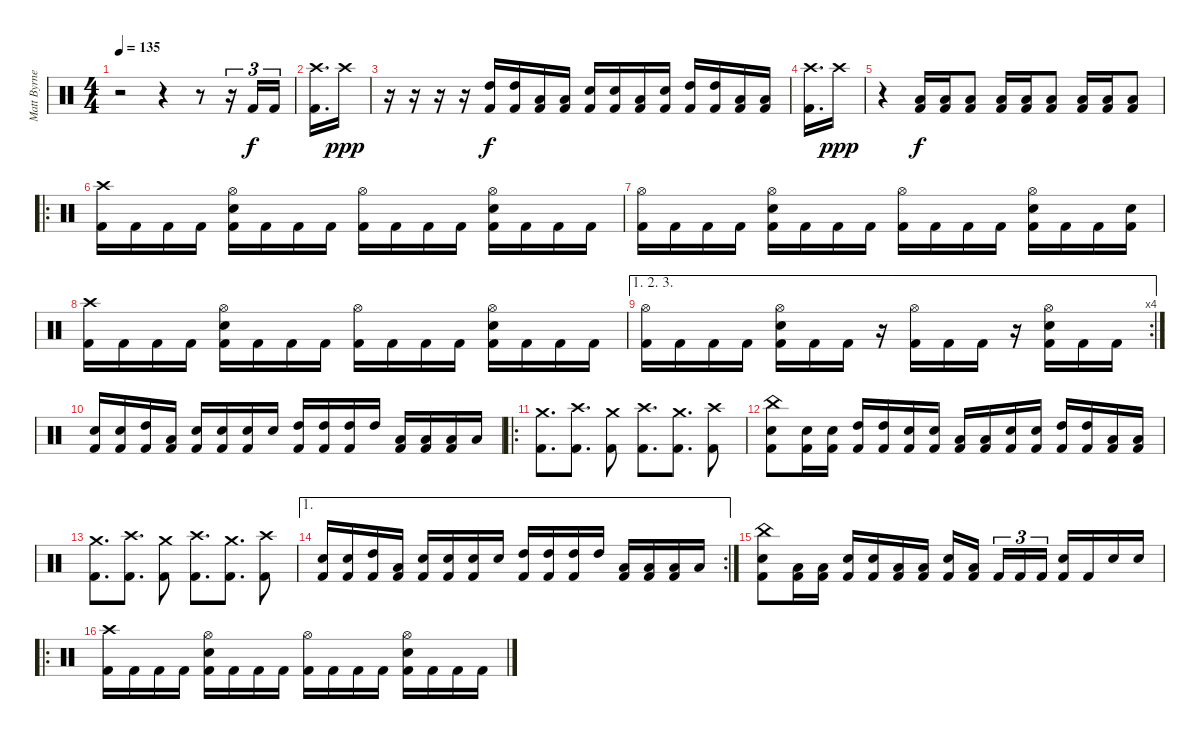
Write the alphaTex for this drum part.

\track ("Matt Byrne" "Matt Byrne") {instrument percussion}
\staff {score}
\articulation defaults
\ts (4 4)
\tempo 135
\clef neutral
\ks c
r.2{dy f} r.4 r.8 r.16{tu (3 2)} "Kick (hit) 2".16{tu (3 2)} "Kick (hit) 2".16{tu (3 2)} |
("Crash high (hit)" "Kick (hit) 2").16{d} "Crash high (hit)".16{dy ppp} |
r.16 r.16 r.16 r.16 ("High Tom (hit)" "Kick (hit) 2").16{dy f} ("High Tom (hit)" "Kick (hit) 2").16 ("Low Tom (hit)" "Kick (hit) 2").16 ("Low Tom (hit)" "Kick (hit) 2").16 ("Electric Snare (hit)" "Kick (hit) 2").16 ("Electric Snare (hit)" "Kick (hit) 2").16 ("Low Tom (hit)" "Kick (hit) 2").16 ("Electric Snare (hit)" "Kick (hit) 2").16 ("High Tom (hit)" "Kick (hit) 2").16 ("High Tom (hit)" "Kick (hit) 2").16 ("Low Tom (hit)" "Kick (hit) 2").16 ("Low Tom (hit)" "Kick (hit) 2").16 |
("Crash high (hit)" "Kick (hit) 2").16{d} "Crash high (hit)".16{dy ppp} |
r.4 ("Low Tom (hit)" "Kick (hit) 2").16{dy f} ("Low Tom (hit)" "Kick (hit) 2").16 ("Low Tom (hit)" "Kick (hit) 2").8 ("Low Tom (hit)" "Kick (hit) 2").16 ("Low Tom (hit)" "Kick (hit) 2").16 ("Low Tom (hit)" "Kick (hit) 2").8 ("Low Tom (hit)" "Kick (hit) 2").16 ("Low Tom (hit)" "Kick (hit) 2").16 ("Low Tom (hit)" "Kick (hit) 2").8 |
\ro
("Crash high (hit)" "Kick (hit) 2").16 "Kick (hit) 2".16 "Kick (hit) 2".16 "Kick (hit) 2".16 ("Hi-Hat (open)" "Electric Snare (hit)" "Kick (hit) 2").16 "Kick (hit) 2".16 "Kick (hit) 2".16 "Kick (hit) 2".16 ("Hi-Hat (open)" "Kick (hit) 2").16 "Kick (hit) 2".16 "Kick (hit) 2".16 "Kick (hit) 2".16 ("Hi-Hat (open)" "Electric Snare (hit)" "Kick (hit) 2").16 "Kick (hit) 2".16 "Kick (hit) 2".16 "Kick (hit) 2".16 |
("Hi-Hat (open)" "Kick (hit) 2").16 "Kick (hit) 2".16 "Kick (hit) 2".16 "Kick (hit) 2".16 ("Hi-Hat (open)" "Electric Snare (hit)" "Kick (hit) 2").16 "Kick (hit) 2".16 "Kick (hit) 2".16 "Kick (hit) 2".16 ("Hi-Hat (open)" "Kick (hit) 2").16 "Kick (hit) 2".16 "Kick (hit) 2".16 "Kick (hit) 2".16 ("Hi-Hat (open)" "Electric Snare (hit)" "Kick (hit) 2").16 "Kick (hit) 2".16 "Kick (hit) 2".16 ("Electric Snare (hit)" "Kick (hit) 2").16 |
("Crash high (hit)" "Kick (hit) 2").16 "Kick (hit) 2".16 "Kick (hit) 2".16 "Kick (hit) 2".16 ("Hi-Hat (open)" "Electric Snare (hit)" "Kick (hit) 2").16 "Kick (hit) 2".16 "Kick (hit) 2".16 "Kick (hit) 2".16 ("Hi-Hat (open)" "Kick (hit) 2").16 "Kick (hit) 2".16 "Kick (hit) 2".16 "Kick (hit) 2".16 ("Hi-Hat (open)" "Electric Snare (hit)" "Kick (hit) 2").16 "Kick (hit) 2".16 "Kick (hit) 2".16 "Kick (hit) 2".16 |
\ae (1 2 3)
\rc 4
("Hi-Hat (open)" "Kick (hit) 2").16 "Kick (hit) 2".16 "Kick (hit) 2".16 "Kick (hit) 2".16 ("Hi-Hat (open)" "Electric Snare (hit)" "Kick (hit) 2").16 "Kick (hit) 2".16 "Kick (hit) 2".16 r.16 ("Hi-Hat (open)" "Kick (hit) 2").16 "Kick (hit) 2".16 "Kick (hit) 2".16 r.16 ("Hi-Hat (open)" "Electric Snare (hit)" "Kick (hit) 2").16 "Kick (hit) 2".16 "Kick (hit) 2".16 |
("Electric Snare (hit)" "Kick (hit) 2").16 ("Electric Snare (hit)" "Kick (hit) 2").16 ("High Tom (hit)" "Kick (hit) 2").16 ("Low Tom (hit)" "Kick (hit) 2").16 ("Electric Snare (hit)" "Kick (hit) 2").16 ("Electric Snare (hit)" "Kick (hit) 2").16 ("Electric Snare (hit)" "Kick (hit) 2").16 "Electric Snare (hit)".16 ("High Tom (hit)" "Kick (hit) 2").16 ("High Tom (hit)" "Kick (hit) 2").16 ("High Tom (hit)" "Kick (hit) 2").16 "High Tom (hit)".16 ("Low Tom (hit)" "Kick (hit) 2").16 ("Low Tom (hit)" "Kick (hit) 2").16 ("Low Tom (hit)" "Kick (hit) 2").16 "Low Tom (hit)".16 |
\ro
("Crash medium (hit)" "Kick (hit) 2").8{d} ("Crash high (hit)" "Kick (hit) 2").8{d} ("Crash medium (hit)" "Kick (hit) 2").8 ("Crash high (hit)" "Kick (hit) 2").8{d} ("Crash medium (hit)" "Kick (hit) 2").8{d} ("Crash high (hit)" "Kick (hit) 2").8 |
("China (hit)" "Electric Snare (hit)" "Kick (hit) 2").8 ("Electric Snare (hit)" "Kick (hit) 2").16 ("Electric Snare (hit)" "Kick (hit) 2").16 ("High Tom (hit)" "Kick (hit) 2").16 ("High Tom (hit)" "Kick (hit) 2").16 ("Electric Snare (hit)" "Kick (hit) 2").16 ("Electric Snare (hit)" "Kick (hit) 2").16 ("Low Tom (hit)" "Kick (hit) 2").16 ("Low Tom (hit)" "Kick (hit) 2").16 ("Electric Snare (hit)" "Kick (hit) 2").16 ("Electric Snare (hit)" "Kick (hit) 2").16 ("High Tom (hit)" "Kick (hit) 2").16 ("High Tom (hit)" "Kick (hit) 2").16 ("Low Tom (hit)" "Kick (hit) 2").16 ("Low Tom (hit)" "Kick (hit) 2").16 |
("Crash medium (hit)" "Kick (hit) 2").8{d} ("Crash high (hit)" "Kick (hit) 2").8{d} ("Crash medium (hit)" "Kick (hit) 2").8 ("Crash high (hit)" "Kick (hit) 2").8{d} ("Crash medium (hit)" "Kick (hit) 2").8{d} ("Crash high (hit)" "Kick (hit) 2").8 |
\ae 1
\rc 2
("Electric Snare (hit)" "Kick (hit) 2").16 ("Electric Snare (hit)" "Kick (hit) 2").16 ("High Tom (hit)" "Kick (hit) 2").16 ("Low Tom (hit)" "Kick (hit) 2").16 ("Electric Snare (hit)" "Kick (hit) 2").16 ("Electric Snare (hit)" "Kick (hit) 2").16 ("Electric Snare (hit)" "Kick (hit) 2").16 "Electric Snare (hit)".16 ("High Tom (hit)" "Kick (hit) 2").16 ("High Tom (hit)" "Kick (hit) 2").16 ("High Tom (hit)" "Kick (hit) 2").16 "High Tom (hit)".16 ("Low Tom (hit)" "Kick (hit) 2").16 ("Low Tom (hit)" "Kick (hit) 2").16 ("Low Tom (hit)" "Kick (hit) 2").16 "Low Tom (hit)".16 |
("China (hit)" "Electric Snare (hit)" "Kick (hit) 2").8 ("Low Tom (hit)" "Kick (hit) 2").16 ("Low Tom (hit)" "Kick (hit) 2").16 ("Electric Snare (hit)" "Kick (hit) 2").16 ("Electric Snare (hit)" "Kick (hit) 2").16 ("Low Tom (hit)" "Kick (hit) 2").16 ("Low Tom (hit)" "Kick (hit) 2").16 ("Electric Snare (hit)" "Kick (hit) 2").16 ("Low Tom (hit)" "Kick (hit) 2").16{beam splitsecondary} "Kick (hit) 2".16{tu (3 2)} "Kick (hit) 2".16{tu (3 2)} "Kick (hit) 2".16{tu (3 2)} ("Electric Snare (hit)" "Kick (hit) 2").16 "Kick (hit) 2".16 "Snare (hit)".16 "Snare (hit)".16 |
\ro
("Crash high (hit)" "Kick (hit) 2").16 "Kick (hit) 2".16 "Kick (hit) 2".16 "Kick (hit) 2".16 ("Hi-Hat (open)" "Electric Snare (hit)" "Kick (hit) 2").16 "Kick (hit) 2".16 "Kick (hit) 2".16 "Kick (hit) 2".16 ("Hi-Hat (open)" "Kick (hit) 2").16 "Kick (hit) 2".16 "Kick (hit) 2".16 "Kick (hit) 2".16 ("Hi-Hat (open)" "Electric Snare (hit)" "Kick (hit) 2").16 "Kick (hit) 2".16 "Kick (hit) 2".16 "Kick (hit) 2".16
